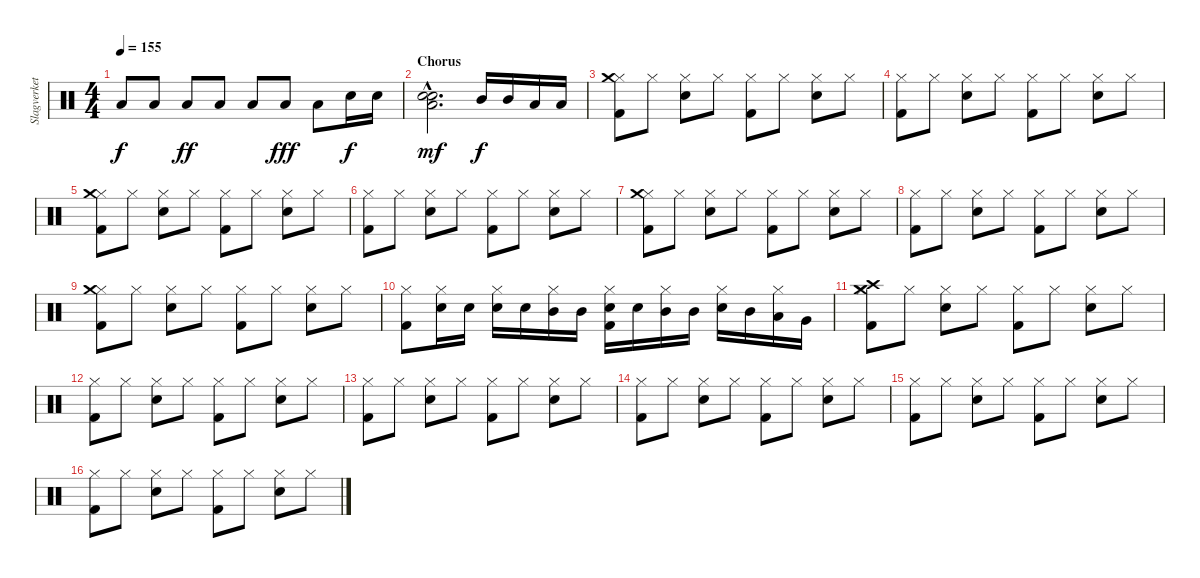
\track ("Slagverket!" "Slagverket") {instrument percussion}
\staff {score}
\articulation defaults
\ts (4 4)
\tempo 155
\clef neutral
\ks c "Low Floor Tom (hit)".8{dy f} "Low Floor Tom (hit)".8 "Low Floor Tom (hit)".8{dy ff} "Low Floor Tom (hit)".8 "Low Floor Tom (hit)".8 "Low Floor Tom (hit)".8{dy fff} "Low Floor Tom (hit)".8 "Electric Snare (hit)".16{dy f} "Electric Snare (hit)".16
|
\section ("" "Chorus")
("Snare (hit) 2"{hac} "Electric Snare (hit)"{hac} "Low Tom (hit)"{hac}).2{d dy mf} "Mid Tom (hit)".16{dy f} "Mid Tom (hit)".16 "Low Tom (hit)".16 "Low Tom (hit)".16 |
("Hi-Hat (closed)" "Crash medium (hit)" "Kick (hit) 2").8 "Hi-Hat (closed)".8 ("Hi-Hat (closed)" "Electric Snare (hit)").8 "Hi-Hat (closed)".8 ("Hi-Hat (closed)" "Kick (hit) 2").8 "Hi-Hat (closed)".8 ("Hi-Hat (closed)" "Electric Snare (hit)").8 "Hi-Hat (closed)".8 |
("Hi-Hat (closed)" "Kick (hit) 2").8 "Hi-Hat (closed)".8 ("Hi-Hat (closed)" "Electric Snare (hit)").8 "Hi-Hat (closed)".8 ("Hi-Hat (closed)" "Kick (hit) 2").8 "Hi-Hat (closed)".8 ("Hi-Hat (closed)" "Electric Snare (hit)").8 "Hi-Hat (closed)".8 |
("Hi-Hat (closed)" "Crash medium (hit)" "Kick (hit) 2").8 "Hi-Hat (closed)".8 ("Hi-Hat (closed)" "Electric Snare (hit)").8 "Hi-Hat (closed)".8 ("Hi-Hat (closed)" "Kick (hit) 2").8 "Hi-Hat (closed)".8 ("Hi-Hat (closed)" "Electric Snare (hit)").8 "Hi-Hat (closed)".8 |
("Hi-Hat (closed)" "Kick (hit) 2").8 "Hi-Hat (closed)".8 ("Hi-Hat (closed)" "Electric Snare (hit)").8 "Hi-Hat (closed)".8 ("Hi-Hat (closed)" "Kick (hit) 2").8 "Hi-Hat (closed)".8 ("Hi-Hat (closed)" "Electric Snare (hit)").8 "Hi-Hat (closed)".8 |
("Hi-Hat (closed)" "Crash medium (hit)" "Kick (hit) 2").8 "Hi-Hat (closed)".8 ("Hi-Hat (closed)" "Electric Snare (hit)").8 "Hi-Hat (closed)".8 ("Hi-Hat (closed)" "Kick (hit) 2").8 "Hi-Hat (closed)".8 ("Hi-Hat (closed)" "Electric Snare (hit)").8 "Hi-Hat (closed)".8 |
("Hi-Hat (closed)" "Kick (hit) 2").8 "Hi-Hat (closed)".8 ("Hi-Hat (closed)" "Electric Snare (hit)").8 "Hi-Hat (closed)".8 ("Hi-Hat (closed)" "Kick (hit) 2").8 "Hi-Hat (closed)".8 ("Hi-Hat (closed)" "Electric Snare (hit)").8 "Hi-Hat (closed)".8 |
("Hi-Hat (closed)" "Crash medium (hit)" "Kick (hit) 2").8 "Hi-Hat (closed)".8 ("Hi-Hat (closed)" "Electric Snare (hit)").8 "Hi-Hat (closed)".8 ("Hi-Hat (closed)" "Kick (hit) 2").8 "Hi-Hat (closed)".8 ("Hi-Hat (closed)" "Electric Snare (hit)").8 "Hi-Hat (closed)".8 |
\section ("" "")
("Hi-Hat (closed)" "Kick (hit) 2").8 ("Hi-Hat (closed)" "Electric Snare (hit)").16 "Electric Snare (hit)".16 ("Hi-Hat (closed)" "Electric Snare (hit)").16 "Electric Snare (hit)".16 ("Hi-Hat (closed)" "Mid Tom (hit)").16 "Mid Tom (hit)".16 ("Hi-Hat (closed)" "Electric Snare (hit)" "Kick (hit) 2").16 "Electric Snare (hit)".16 ("Hi-Hat (closed)" "Mid Tom (hit)").16 "Mid Tom (hit)".16 ("Hi-Hat (closed)" "Electric Snare (hit)").16 "Mid Tom (hit)".16 ("Hi-Hat (closed)" "Low Tom (hit)").16 "Very Low Tom (hit)".16 |
("Hi-Hat (closed)" "Crash medium (hit)" "Crash high (hit)" "Kick (hit) 2").8 "Hi-Hat (closed)".8 ("Hi-Hat (closed)" "Electric Snare (hit)").8 "Hi-Hat (closed)".8 ("Hi-Hat (closed)" "Kick (hit) 2").8 "Hi-Hat (closed)".8 ("Hi-Hat (closed)" "Electric Snare (hit)").8 "Hi-Hat (closed)".8 |
("Hi-Hat (closed)" "Kick (hit) 2").8 "Hi-Hat (closed)".8 ("Hi-Hat (closed)" "Electric Snare (hit)").8 "Hi-Hat (closed)".8 ("Hi-Hat (closed)" "Kick (hit) 2").8 "Hi-Hat (closed)".8 ("Hi-Hat (closed)" "Electric Snare (hit)").8 "Hi-Hat (closed)".8 |
("Hi-Hat (closed)" "Kick (hit) 2").8 "Hi-Hat (closed)".8 ("Hi-Hat (closed)" "Electric Snare (hit)").8 "Hi-Hat (closed)".8 ("Hi-Hat (closed)" "Kick (hit) 2").8 "Hi-Hat (closed)".8 ("Hi-Hat (closed)" "Electric Snare (hit)").8 "Hi-Hat (closed)".8 |
("Hi-Hat (closed)" "Kick (hit) 2").8 "Hi-Hat (closed)".8 ("Hi-Hat (closed)" "Electric Snare (hit)").8 "Hi-Hat (closed)".8 ("Hi-Hat (closed)" "Kick (hit) 2").8 "Hi-Hat (closed)".8 ("Hi-Hat (closed)" "Electric Snare (hit)").8 "Hi-Hat (closed)".8 |
("Hi-Hat (closed)" "Kick (hit) 2").8 "Hi-Hat (closed)".8 ("Hi-Hat (closed)" "Electric Snare (hit)").8 "Hi-Hat (closed)".8 ("Hi-Hat (closed)" "Kick (hit) 2").8 "Hi-Hat (closed)".8 ("Hi-Hat (closed)" "Electric Snare (hit)").8 "Hi-Hat (closed)".8 |
("Hi-Hat (closed)" "Kick (hit) 2").8 "Hi-Hat (closed)".8 ("Hi-Hat (closed)" "Electric Snare (hit)").8 "Hi-Hat (closed)".8 ("Hi-Hat (closed)" "Kick (hit) 2").8 "Hi-Hat (closed)".8 ("Hi-Hat (closed)" "Electric Snare (hit)").8 "Hi-Hat (closed)".8
